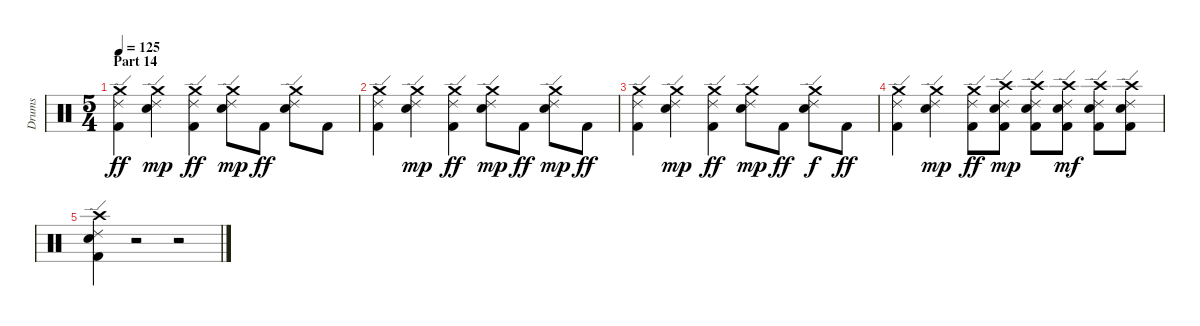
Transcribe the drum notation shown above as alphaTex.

\track ("Drums" "Drums") {instrument percussion}
\staff {score}
\articulation defaults
\ts (5 4)
\section ("" "Part 14")
\tempo 125
\clef neutral
\ks c
("Crash medium (hit)" "Ride (edge) 2" "Kick (hit) 2").4{dy ff} ("Crash medium (hit)" "Ride (edge) 2" "Electric Snare (hit)").4{dy mp} ("Crash medium (hit)" "Ride (edge) 2" "Kick (hit) 2").4{dy ff} ("Crash medium (hit)" "Ride (edge) 2" "Electric Snare (hit)").8{dy mp} "Kick (hit) 2".8{dy ff} ("Crash medium (hit)" "Ride (edge) 2" "Electric Snare (hit)").8 "Kick (hit) 2".8 |
("Crash medium (hit)" "Ride (edge) 2" "Kick (hit) 2").4 ("Crash medium (hit)" "Ride (edge) 2" "Electric Snare (hit)").4{dy mp} ("Crash medium (hit)" "Ride (edge) 2" "Kick (hit) 2").4{dy ff} ("Crash medium (hit)" "Ride (edge) 2" "Electric Snare (hit)").8{dy mp} "Kick (hit) 2".8{dy ff} ("Crash medium (hit)" "Ride (edge) 2" "Electric Snare (hit)").8{dy mp} "Kick (hit) 2".8{dy ff} |
("Crash medium (hit)" "Ride (edge) 2" "Kick (hit) 2").4 ("Crash medium (hit)" "Ride (edge) 2" "Electric Snare (hit)").4{dy mp} ("Crash medium (hit)" "Ride (edge) 2" "Kick (hit) 2").4{dy ff} ("Crash medium (hit)" "Ride (edge) 2" "Electric Snare (hit)").8{dy mp} "Kick (hit) 2".8{dy ff} ("Crash medium (hit)" "Ride (edge) 2" "Electric Snare (hit)").8{dy f} "Kick (hit) 2".8{dy ff} |
("Crash medium (hit)" "Ride (edge) 2" "Kick (hit) 2").4 ("Crash medium (hit)" "Ride (edge) 2" "Electric Snare (hit)").4{dy mp} ("Crash medium (hit)" "Ride (edge) 2" "Kick (hit) 2").8{dy ff} ("Crash high (hit)" "Ride (edge) 2" "Electric Snare (hit)" "Kick (hit) 2").8{dy mp} ("Crash high (hit)" "Ride (edge) 2" "Electric Snare (hit)" "Kick (hit) 2").8 ("Crash high (hit)" "Ride (edge) 2" "Electric Snare (hit)" "Kick (hit) 2").8{dy mf} ("Crash high (hit)" "Ride (edge) 2" "Electric Snare (hit)" "Kick (hit) 2").8 ("Crash high (hit)" "Ride (edge) 2" "Electric Snare (hit)" "Kick (hit) 2").8 |
("Crash high (hit)" "Ride (edge) 2" "Electric Snare (hit)" "Kick (hit) 2").4 r.2 r.2
